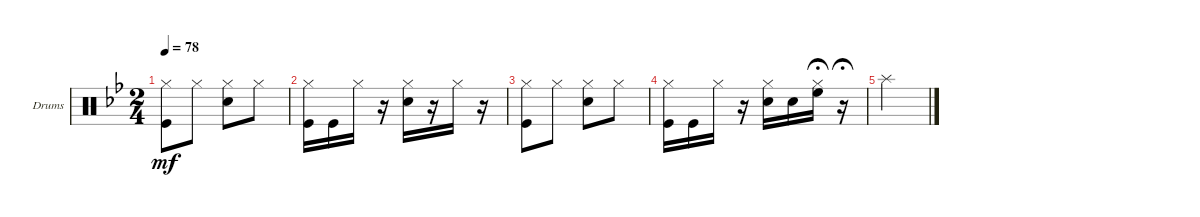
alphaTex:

\defaultSystemsLayout 4
\bracketExtendMode groupsimilarinstruments
\firstSystemTrackNameOrientation horizontal
\otherSystemsTrackNameOrientation horizontal
\track ("Катя" "Drums") {instrument percussion}
\staff {score}
\articulation defaults
\ts (2 4)
\tempo 78
\clef neutral
\ks gminor
("Kick (hit)" "Hi-Hat (closed)").8{dy mf} "Hi-Hat (closed)".8 ("Hi-Hat (closed)" "Snare (hit) 2").8 "Hi-Hat (closed)".8 |
("Hi-Hat (closed)" "Kick (hit)").16 "Kick (hit)".16 "Hi-Hat (closed)".16 r.16 ("Hi-Hat (closed)" "Snare (hit) 2").16 r.16 "Hi-Hat (closed)".16 r.16 |
("Kick (hit)" "Hi-Hat (closed)").8 "Hi-Hat (closed)".8 ("Hi-Hat (closed)" "Snare (hit) 2").8 "Hi-Hat (closed)".8 |
("Hi-Hat (closed)" "Kick (hit)").16 "Kick (hit)".16 "Hi-Hat (closed)".16 r.16 ("Hi-Hat (closed)" "Snare (hit) 2").16 "Snare (hit) 2".16 ("Hi-Hat (closed)" "High Floor Tom (hit)").16{fermata (medium 1)} r.16{fermata (medium 1)} |
"Splash (hit)".2
